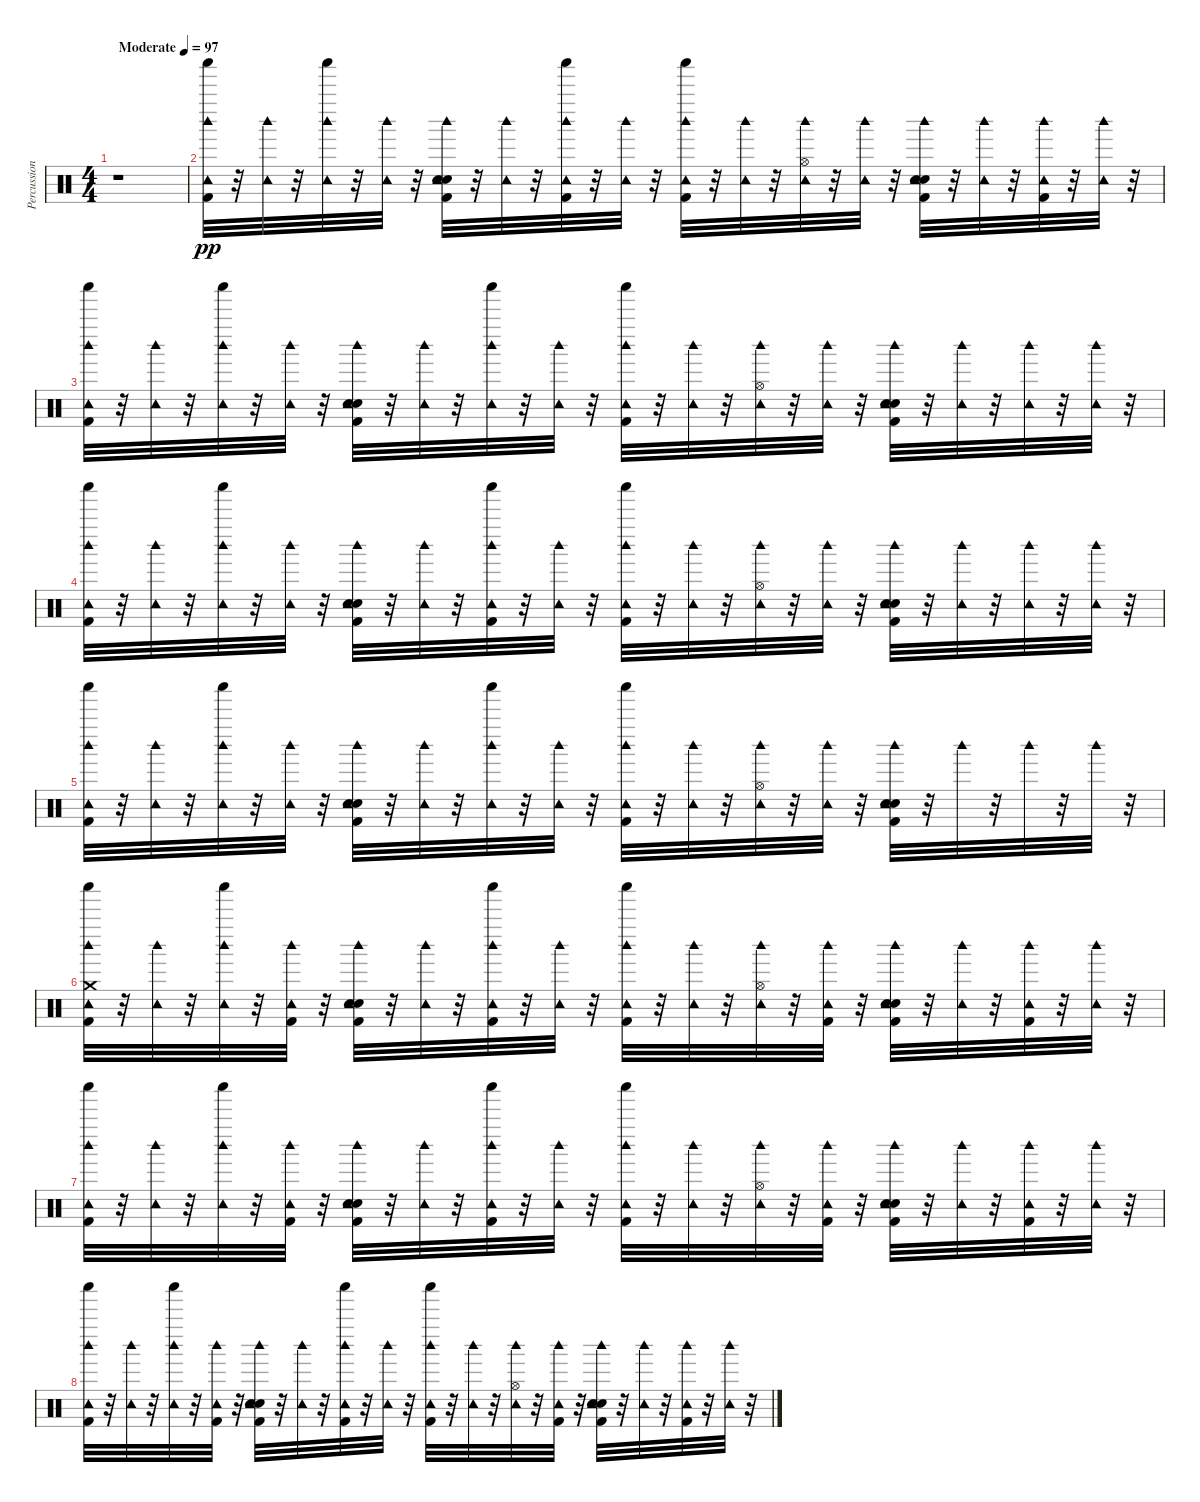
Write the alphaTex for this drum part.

\track ("Percussion" "Percussion") {instrument percussion}
\staff {score}
\articulation defaults
\ts (4 4)
\tempo (97 "Moderate")
\clef neutral
\ks c
r.1{dy pp} |
("Kick (hit) 2" "Tambourine (hit)" "Shaker (hit)" "Woodblock high (hit)").32 r.32 ("Tambourine (hit)" "Woodblock high (hit)").32 r.32 ("Tambourine (hit)" "Shaker (hit)" "Woodblock high (hit)").32 r.32 ("Tambourine (hit)" "Woodblock high (hit)").32 r.32 ("Kick (hit) 2" "Snare (hit) 2" "Hand Clap (hit)" "Tambourine (hit)" "Woodblock high (hit)").32 r.32 ("Tambourine (hit)" "Woodblock high (hit)").32 r.32 ("Kick (hit) 2" "Tambourine (hit)" "Shaker (hit)" "Woodblock high (hit)").32 r.32 ("Tambourine (hit)" "Woodblock high (hit)").32 r.32 ("Kick (hit) 2" "Tambourine (hit)" "Shaker (hit)" "Woodblock high (hit)").32 r.32 ("Tambourine (hit)" "Woodblock high (hit)").32 r.32 ("Hi-Hat (open)" "Tambourine (hit)" "Woodblock high (hit)").32 r.32 ("Tambourine (hit)" "Woodblock high (hit)").32 r.32 ("Kick (hit) 2" "Snare (hit) 2" "Hand Clap (hit)" "Tambourine (hit)" "Woodblock high (hit)").32 r.32 ("Tambourine (hit)" "Woodblock high (hit)").32 r.32 ("Kick (hit) 2" "Tambourine (hit)" "Woodblock high (hit)").32 r.32 ("Tambourine (hit)" "Woodblock high (hit)").32 r.32 |
("Kick (hit) 2" "Tambourine (hit)" "Shaker (hit)" "Woodblock high (hit)").32 r.32 ("Tambourine (hit)" "Woodblock high (hit)").32 r.32 ("Tambourine (hit)" "Shaker (hit)" "Woodblock high (hit)").32 r.32 ("Tambourine (hit)" "Woodblock high (hit)").32 r.32 ("Kick (hit) 2" "Snare (hit) 2" "Hand Clap (hit)" "Tambourine (hit)" "Woodblock high (hit)").32 r.32 ("Tambourine (hit)" "Woodblock high (hit)").32 r.32 ("Tambourine (hit)" "Shaker (hit)" "Woodblock high (hit)").32 r.32 ("Tambourine (hit)" "Woodblock high (hit)").32 r.32 ("Kick (hit) 2" "Tambourine (hit)" "Shaker (hit)" "Woodblock high (hit)").32 r.32 ("Tambourine (hit)" "Woodblock high (hit)").32 r.32 ("Hi-Hat (open)" "Tambourine (hit)" "Woodblock high (hit)").32 r.32 ("Tambourine (hit)" "Woodblock high (hit)").32 r.32 ("Kick (hit) 2" "Snare (hit) 2" "Hand Clap (hit)" "Tambourine (hit)" "Woodblock high (hit)").32 r.32 ("Tambourine (hit)" "Woodblock high (hit)").32 r.32 ("Tambourine (hit)" "Woodblock high (hit)").32 r.32 ("Tambourine (hit)" "Woodblock high (hit)").32 r.32 |
("Kick (hit) 2" "Tambourine (hit)" "Shaker (hit)" "Woodblock high (hit)").32 r.32 ("Tambourine (hit)" "Woodblock high (hit)").32 r.32 ("Tambourine (hit)" "Shaker (hit)" "Woodblock high (hit)").32 r.32 ("Tambourine (hit)" "Woodblock high (hit)").32 r.32 ("Kick (hit) 2" "Snare (hit) 2" "Hand Clap (hit)" "Tambourine (hit)" "Woodblock high (hit)").32 r.32 ("Tambourine (hit)" "Woodblock high (hit)").32 r.32 ("Kick (hit) 2" "Tambourine (hit)" "Shaker (hit)" "Woodblock high (hit)").32 r.32 ("Tambourine (hit)" "Woodblock high (hit)").32 r.32 ("Kick (hit) 2" "Tambourine (hit)" "Shaker (hit)" "Woodblock high (hit)").32 r.32 ("Tambourine (hit)" "Woodblock high (hit)").32 r.32 ("Hi-Hat (open)" "Tambourine (hit)" "Woodblock high (hit)").32 r.32 ("Tambourine (hit)" "Woodblock high (hit)").32 r.32 ("Kick (hit) 2" "Snare (hit) 2" "Hand Clap (hit)" "Tambourine (hit)" "Woodblock high (hit)").32 r.32 ("Tambourine (hit)" "Woodblock high (hit)").32 r.32 ("Tambourine (hit)" "Woodblock high (hit)").32 r.32 ("Tambourine (hit)" "Woodblock high (hit)").32 r.32 |
("Kick (hit) 2" "Tambourine (hit)" "Shaker (hit)" "Woodblock high (hit)").32 r.32 ("Tambourine (hit)" "Woodblock high (hit)").32 r.32 ("Tambourine (hit)" "Shaker (hit)" "Woodblock high (hit)").32 r.32 ("Tambourine (hit)" "Woodblock high (hit)").32 r.32 ("Kick (hit) 2" "Snare (hit) 2" "Hand Clap (hit)" "Tambourine (hit)" "Woodblock high (hit)").32 r.32 ("Tambourine (hit)" "Woodblock high (hit)").32 r.32 ("Tambourine (hit)" "Shaker (hit)" "Woodblock high (hit)").32 r.32 ("Tambourine (hit)" "Woodblock high (hit)").32 r.32 ("Kick (hit) 2" "Tambourine (hit)" "Shaker (hit)" "Woodblock high (hit)").32 r.32 ("Tambourine (hit)" "Woodblock high (hit)").32 r.32 ("Hi-Hat (open)" "Tambourine (hit)" "Woodblock high (hit)").32 r.32 ("Tambourine (hit)" "Woodblock high (hit)").32 r.32 ("Kick (hit) 2" "Snare (hit) 2" "Hand Clap (hit)" "Tambourine (hit)" "Woodblock high (hit)").32 r.32 "Woodblock high (hit)".32 r.32 "Woodblock high (hit)".32 r.32 "Woodblock high (hit)".32 r.32 |
("Kick (hit) 2" "Tambourine (hit)" "Crash medium (hit)" "Shaker (hit)" "Woodblock high (hit)").32 r.32 ("Tambourine (hit)" "Woodblock high (hit)").32 r.32 ("Tambourine (hit)" "Shaker (hit)" "Woodblock high (hit)").32 r.32 ("Kick (hit) 2" "Tambourine (hit)" "Woodblock high (hit)").32 r.32 ("Kick (hit) 2" "Snare (hit) 2" "Hand Clap (hit)" "Tambourine (hit)" "Woodblock high (hit)").32 r.32 ("Tambourine (hit)" "Woodblock high (hit)").32 r.32 ("Kick (hit) 2" "Tambourine (hit)" "Shaker (hit)" "Woodblock high (hit)").32 r.32 ("Tambourine (hit)" "Woodblock high (hit)").32 r.32 ("Kick (hit) 2" "Tambourine (hit)" "Shaker (hit)" "Woodblock high (hit)").32 r.32 ("Tambourine (hit)" "Woodblock high (hit)").32 r.32 ("Hi-Hat (open)" "Tambourine (hit)" "Woodblock high (hit)").32 r.32 ("Kick (hit) 2" "Tambourine (hit)" "Woodblock high (hit)").32 r.32 ("Kick (hit) 2" "Snare (hit) 2" "Hand Clap (hit)" "Tambourine (hit)" "Woodblock high (hit)").32 r.32 ("Tambourine (hit)" "Woodblock high (hit)").32 r.32 ("Kick (hit) 2" "Tambourine (hit)" "Woodblock high (hit)").32 r.32 ("Tambourine (hit)" "Woodblock high (hit)").32 r.32 |
("Kick (hit) 2" "Tambourine (hit)" "Shaker (hit)" "Woodblock high (hit)").32 r.32 ("Tambourine (hit)" "Woodblock high (hit)").32 r.32 ("Tambourine (hit)" "Shaker (hit)" "Woodblock high (hit)").32 r.32 ("Kick (hit) 2" "Tambourine (hit)" "Woodblock high (hit)").32 r.32 ("Kick (hit) 2" "Snare (hit) 2" "Hand Clap (hit)" "Tambourine (hit)" "Woodblock high (hit)").32 r.32 ("Tambourine (hit)" "Woodblock high (hit)").32 r.32 ("Kick (hit) 2" "Tambourine (hit)" "Shaker (hit)" "Woodblock high (hit)").32 r.32 ("Tambourine (hit)" "Woodblock high (hit)").32 r.32 ("Kick (hit) 2" "Tambourine (hit)" "Shaker (hit)" "Woodblock high (hit)").32 r.32 ("Tambourine (hit)" "Woodblock high (hit)").32 r.32 ("Hi-Hat (open)" "Tambourine (hit)" "Woodblock high (hit)").32 r.32 ("Kick (hit) 2" "Tambourine (hit)" "Woodblock high (hit)").32 r.32 ("Kick (hit) 2" "Snare (hit) 2" "Hand Clap (hit)" "Tambourine (hit)" "Woodblock high (hit)").32 r.32 ("Tambourine (hit)" "Woodblock high (hit)").32 r.32 ("Kick (hit) 2" "Tambourine (hit)" "Woodblock high (hit)").32 r.32 ("Tambourine (hit)" "Woodblock high (hit)").32 r.32 |
("Kick (hit) 2" "Tambourine (hit)" "Shaker (hit)" "Woodblock high (hit)").32 r.32 ("Tambourine (hit)" "Woodblock high (hit)").32 r.32 ("Tambourine (hit)" "Shaker (hit)" "Woodblock high (hit)").32 r.32 ("Kick (hit) 2" "Tambourine (hit)" "Woodblock high (hit)").32 r.32 ("Kick (hit) 2" "Snare (hit) 2" "Hand Clap (hit)" "Tambourine (hit)" "Woodblock high (hit)").32 r.32 ("Tambourine (hit)" "Woodblock high (hit)").32 r.32 ("Kick (hit) 2" "Tambourine (hit)" "Shaker (hit)" "Woodblock high (hit)").32 r.32 ("Tambourine (hit)" "Woodblock high (hit)").32 r.32 ("Kick (hit) 2" "Tambourine (hit)" "Shaker (hit)" "Woodblock high (hit)").32 r.32 ("Tambourine (hit)" "Woodblock high (hit)").32 r.32 ("Hi-Hat (open)" "Tambourine (hit)" "Woodblock high (hit)").32 r.32 ("Kick (hit) 2" "Tambourine (hit)" "Woodblock high (hit)").32 r.32 ("Kick (hit) 2" "Snare (hit) 2" "Hand Clap (hit)" "Tambourine (hit)" "Woodblock high (hit)").32 r.32 ("Tambourine (hit)" "Woodblock high (hit)").32 r.32 ("Kick (hit) 2" "Tambourine (hit)" "Woodblock high (hit)").32 r.32 ("Tambourine (hit)" "Woodblock high (hit)").32 r.32
